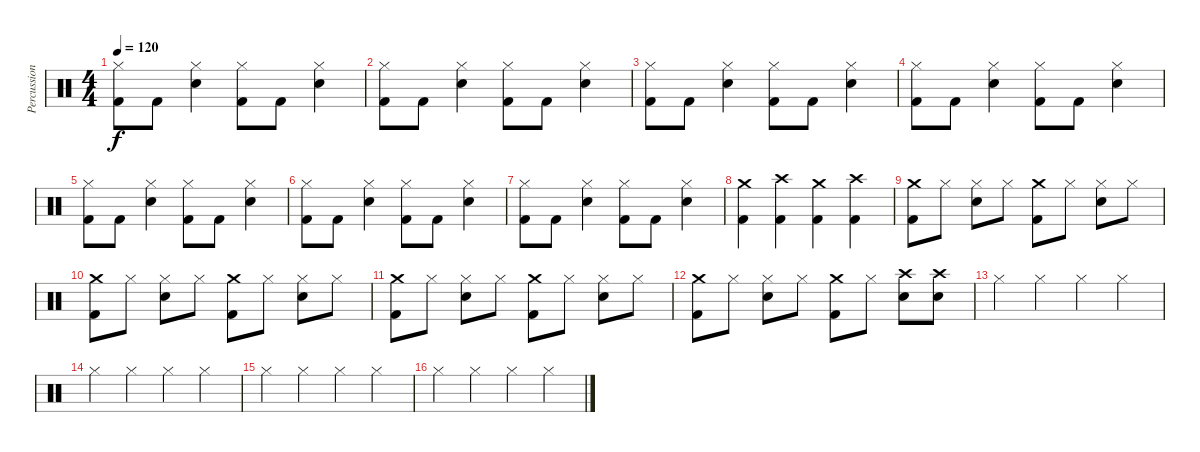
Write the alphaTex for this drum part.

\track ("Percussions" "Percussion") {instrument percussion}
\staff {score}
\articulation defaults
\ts (4 4)
\tempo 120
\clef neutral
\ks c
("Hi-Hat (closed)" "Kick (hit) 2").8{dy f} "Kick (hit) 2".8 ("Hi-Hat (closed)" "Electric Snare (hit)").4 ("Hi-Hat (closed)" "Kick (hit) 2").8 "Kick (hit) 2".8 ("Hi-Hat (closed)" "Electric Snare (hit)").4 |
("Hi-Hat (closed)" "Kick (hit) 2").8 "Kick (hit) 2".8 ("Hi-Hat (closed)" "Electric Snare (hit)").4 ("Hi-Hat (closed)" "Kick (hit) 2").8 "Kick (hit) 2".8 ("Hi-Hat (closed)" "Electric Snare (hit)").4 |
("Hi-Hat (closed)" "Kick (hit) 2").8 "Kick (hit) 2".8 ("Hi-Hat (closed)" "Electric Snare (hit)").4 ("Hi-Hat (closed)" "Kick (hit) 2").8 "Kick (hit) 2".8 ("Hi-Hat (closed)" "Electric Snare (hit)").4 |
("Hi-Hat (closed)" "Kick (hit) 2").8 "Kick (hit) 2".8 ("Hi-Hat (closed)" "Electric Snare (hit)").4 ("Hi-Hat (closed)" "Kick (hit) 2").8 "Kick (hit) 2".8 ("Hi-Hat (closed)" "Electric Snare (hit)").4 |
("Hi-Hat (closed)" "Kick (hit) 2").8 "Kick (hit) 2".8 ("Hi-Hat (closed)" "Electric Snare (hit)").4 ("Hi-Hat (closed)" "Kick (hit) 2").8 "Kick (hit) 2".8 ("Hi-Hat (closed)" "Electric Snare (hit)").4 |
("Hi-Hat (closed)" "Kick (hit) 2").8 "Kick (hit) 2".8 ("Hi-Hat (closed)" "Electric Snare (hit)").4 ("Hi-Hat (closed)" "Kick (hit) 2").8 "Kick (hit) 2".8 ("Hi-Hat (closed)" "Electric Snare (hit)").4 |
("Hi-Hat (closed)" "Kick (hit) 2").8 "Kick (hit) 2".8 ("Hi-Hat (closed)" "Electric Snare (hit)").4 ("Hi-Hat (closed)" "Kick (hit) 2").8 "Kick (hit) 2".8 ("Hi-Hat (closed)" "Electric Snare (hit)").4 |
("Crash medium (hit)" "Kick (hit) 2").4 ("Crash high (hit)" "Kick (hit) 2").4 ("Crash medium (hit)" "Kick (hit) 2").4 ("Crash high (hit)" "Kick (hit) 2").4 |
("Crash medium (hit)" "Kick (hit) 2").8 "Hi-Hat (closed)".8 ("Hi-Hat (closed)" "Electric Snare (hit)").8 "Hi-Hat (closed)".8 ("Crash medium (hit)" "Kick (hit) 2").8 "Hi-Hat (closed)".8 ("Hi-Hat (closed)" "Electric Snare (hit)").8 "Hi-Hat (closed)".8 |
("Crash medium (hit)" "Kick (hit) 2").8 "Hi-Hat (closed)".8 ("Hi-Hat (closed)" "Electric Snare (hit)").8 "Hi-Hat (closed)".8 ("Crash medium (hit)" "Kick (hit) 2").8 "Hi-Hat (closed)".8 ("Hi-Hat (closed)" "Electric Snare (hit)").8 "Hi-Hat (closed)".8 |
("Crash medium (hit)" "Kick (hit) 2").8 "Hi-Hat (closed)".8 ("Hi-Hat (closed)" "Electric Snare (hit)").8 "Hi-Hat (closed)".8 ("Crash medium (hit)" "Kick (hit) 2").8 "Hi-Hat (closed)".8 ("Hi-Hat (closed)" "Electric Snare (hit)").8 "Hi-Hat (closed)".8 |
("Crash medium (hit)" "Kick (hit) 2").8 "Hi-Hat (closed)".8 ("Hi-Hat (closed)" "Electric Snare (hit)").8 "Hi-Hat (closed)".8 ("Crash medium (hit)" "Kick (hit) 2").8 "Hi-Hat (closed)".8 ("Crash high (hit)" "Electric Snare (hit)").8 ("Crash high (hit)" "Electric Snare (hit)").8 |
"Hi-Hat (closed)".4 "Hi-Hat (closed)".4 "Hi-Hat (closed)".4 "Hi-Hat (closed)".4 |
"Hi-Hat (closed)".4 "Hi-Hat (closed)".4 "Hi-Hat (closed)".4 "Hi-Hat (closed)".4 |
"Hi-Hat (closed)".4 "Hi-Hat (closed)".4 "Hi-Hat (closed)".4 "Hi-Hat (closed)".4 |
"Hi-Hat (closed)".4 "Hi-Hat (closed)".4 "Hi-Hat (closed)".4 "Hi-Hat (closed)".4
